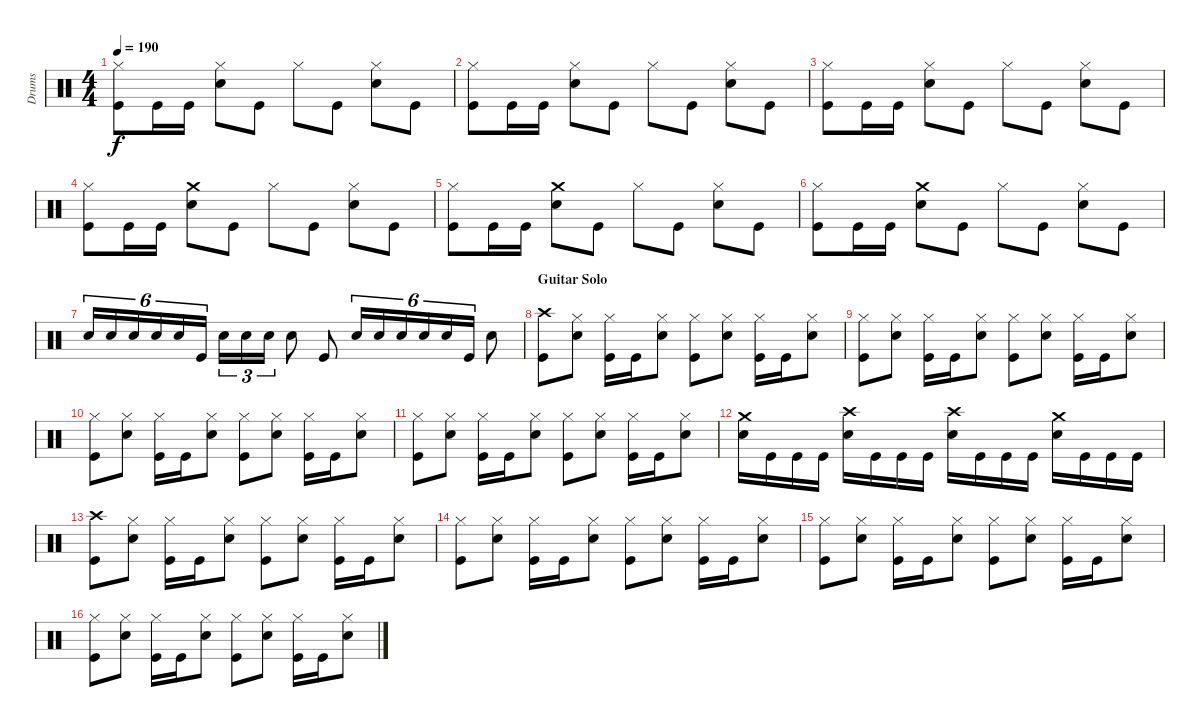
\track ("Drums" "Drums") {instrument percussion}
\staff {score}
\articulation defaults
\ts (4 4)
\tempo 190
\clef neutral
\ks c
("Hi-Hat (closed)" "Kick (hit)").8{dy f} "Kick (hit)".16 "Kick (hit)".16 ("Hi-Hat (closed)" "Snare (hit) 2").8 "Kick (hit)".8 "Hi-Hat (closed)".8 "Kick (hit)".8 ("Hi-Hat (closed)" "Snare (hit) 2").8 "Kick (hit)".8 |
("Hi-Hat (closed)" "Kick (hit)").8 "Kick (hit)".16 "Kick (hit)".16 ("Hi-Hat (closed)" "Snare (hit) 2").8 "Kick (hit)".8 "Hi-Hat (closed)".8 "Kick (hit)".8 ("Hi-Hat (closed)" "Snare (hit) 2").8 "Kick (hit)".8 |
("Hi-Hat (closed)" "Kick (hit)").8 "Kick (hit)".16 "Kick (hit)".16 ("Hi-Hat (closed)" "Snare (hit) 2").8 "Kick (hit)".8 "Hi-Hat (closed)".8 "Kick (hit)".8 ("Hi-Hat (closed)" "Snare (hit) 2").8 "Kick (hit)".8 |
("Hi-Hat (closed)" "Kick (hit)").8 "Kick (hit)".16 "Kick (hit)".16 ("Crash medium (hit)" "Snare (hit) 2").8 "Kick (hit)".8 "Hi-Hat (closed)".8 "Kick (hit)".8 ("Hi-Hat (closed)" "Snare (hit) 2").8 "Kick (hit)".8 |
("Hi-Hat (closed)" "Kick (hit)").8 "Kick (hit)".16 "Kick (hit)".16 ("Crash medium (hit)" "Snare (hit) 2").8 "Kick (hit)".8 "Hi-Hat (closed)".8 "Kick (hit)".8 ("Hi-Hat (closed)" "Snare (hit) 2").8 "Kick (hit)".8 |
("Hi-Hat (closed)" "Kick (hit)").8 "Kick (hit)".16 "Kick (hit)".16 ("Crash medium (hit)" "Snare (hit) 2").8 "Kick (hit)".8 "Hi-Hat (closed)".8 "Kick (hit)".8 ("Hi-Hat (closed)" "Snare (hit) 2").8 "Kick (hit)".8 |
"Snare (hit) 2".16{tu (6 4)} "Snare (hit) 2".16{tu (6 4)} "Snare (hit) 2".16{tu (6 4)} "Snare (hit) 2".16{tu (6 4)} "Snare (hit) 2".16{tu (6 4)} "Kick (hit)".16{tu (6 4)} "Snare (hit) 2".16{tu (3 2)} "Snare (hit) 2".16{tu (3 2)} "Snare (hit) 2".16{tu (3 2)} "Snare (hit) 2".8 "Kick (hit)".8 "Snare (hit) 2".16{tu (6 4)} "Snare (hit) 2".16{tu (6 4)} "Snare (hit) 2".16{tu (6 4)} "Snare (hit) 2".16{tu (6 4)} "Snare (hit) 2".16{tu (6 4)} "Kick (hit)".16{tu (6 4)} "Snare (hit) 2".8 |
\section ("" "Guitar Solo")
("Crash high (hit)" "Kick (hit)").8 ("Hi-Hat (closed)" "Snare (hit) 2").8 ("Hi-Hat (closed)" "Kick (hit)").16 "Kick (hit)".16 ("Hi-Hat (closed)" "Snare (hit) 2").8 ("Hi-Hat (closed)" "Kick (hit)").8 ("Hi-Hat (closed)" "Snare (hit) 2").8 ("Hi-Hat (closed)" "Kick (hit)").16 "Kick (hit)".16 ("Hi-Hat (closed)" "Snare (hit) 2").8 |
("Hi-Hat (closed)" "Kick (hit)").8 ("Hi-Hat (closed)" "Snare (hit) 2").8 ("Hi-Hat (closed)" "Kick (hit)").16 "Kick (hit)".16 ("Hi-Hat (closed)" "Snare (hit) 2").8 ("Hi-Hat (closed)" "Kick (hit)").8 ("Hi-Hat (closed)" "Snare (hit) 2").8 ("Hi-Hat (closed)" "Kick (hit)").16 "Kick (hit)".16 ("Hi-Hat (closed)" "Snare (hit) 2").8 |
("Hi-Hat (closed)" "Kick (hit)").8 ("Hi-Hat (closed)" "Snare (hit) 2").8 ("Hi-Hat (closed)" "Kick (hit)").16 "Kick (hit)".16 ("Hi-Hat (closed)" "Snare (hit) 2").8 ("Hi-Hat (closed)" "Kick (hit)").8 ("Hi-Hat (closed)" "Snare (hit) 2").8 ("Hi-Hat (closed)" "Kick (hit)").16 "Kick (hit)".16 ("Hi-Hat (closed)" "Snare (hit) 2").8 |
("Hi-Hat (closed)" "Kick (hit)").8 ("Hi-Hat (closed)" "Snare (hit) 2").8 ("Hi-Hat (closed)" "Kick (hit)").16 "Kick (hit)".16 ("Hi-Hat (closed)" "Snare (hit) 2").8 ("Hi-Hat (closed)" "Kick (hit)").8 ("Hi-Hat (closed)" "Snare (hit) 2").8 ("Hi-Hat (closed)" "Kick (hit)").16 "Kick (hit)".16 ("Hi-Hat (closed)" "Snare (hit) 2").8 |
("Crash medium (hit)" "Snare (hit) 2").16 "Kick (hit)".16 "Kick (hit)".16 "Kick (hit)".16 ("Crash high (hit)" "Snare (hit) 2").16 "Kick (hit)".16 "Kick (hit)".16 "Kick (hit)".16 ("Crash high (hit)" "Snare (hit) 2").16 "Kick (hit)".16 "Kick (hit)".16 "Kick (hit)".16 ("Crash medium (hit)" "Snare (hit) 2").16 "Kick (hit)".16 "Kick (hit)".16 "Kick (hit)".16 |
("Crash high (hit)" "Kick (hit)").8 ("Hi-Hat (closed)" "Snare (hit) 2").8 ("Hi-Hat (closed)" "Kick (hit)").16 "Kick (hit)".16 ("Hi-Hat (closed)" "Snare (hit) 2").8 ("Hi-Hat (closed)" "Kick (hit)").8 ("Hi-Hat (closed)" "Snare (hit) 2").8 ("Hi-Hat (closed)" "Kick (hit)").16 "Kick (hit)".16 ("Hi-Hat (closed)" "Snare (hit) 2").8 |
("Hi-Hat (closed)" "Kick (hit)").8 ("Hi-Hat (closed)" "Snare (hit) 2").8 ("Hi-Hat (closed)" "Kick (hit)").16 "Kick (hit)".16 ("Hi-Hat (closed)" "Snare (hit) 2").8 ("Hi-Hat (closed)" "Kick (hit)").8 ("Hi-Hat (closed)" "Snare (hit) 2").8 ("Hi-Hat (closed)" "Kick (hit)").16 "Kick (hit)".16 ("Hi-Hat (closed)" "Snare (hit) 2").8 |
("Hi-Hat (closed)" "Kick (hit)").8 ("Hi-Hat (closed)" "Snare (hit) 2").8 ("Hi-Hat (closed)" "Kick (hit)").16 "Kick (hit)".16 ("Hi-Hat (closed)" "Snare (hit) 2").8 ("Hi-Hat (closed)" "Kick (hit)").8 ("Hi-Hat (closed)" "Snare (hit) 2").8 ("Hi-Hat (closed)" "Kick (hit)").16 "Kick (hit)".16 ("Hi-Hat (closed)" "Snare (hit) 2").8 |
("Hi-Hat (closed)" "Kick (hit)").8 ("Hi-Hat (closed)" "Snare (hit) 2").8 ("Hi-Hat (closed)" "Kick (hit)").16 "Kick (hit)".16 ("Hi-Hat (closed)" "Snare (hit) 2").8 ("Hi-Hat (closed)" "Kick (hit)").8 ("Hi-Hat (closed)" "Snare (hit) 2").8 ("Hi-Hat (closed)" "Kick (hit)").16 "Kick (hit)".16 ("Hi-Hat (closed)" "Snare (hit) 2").8
